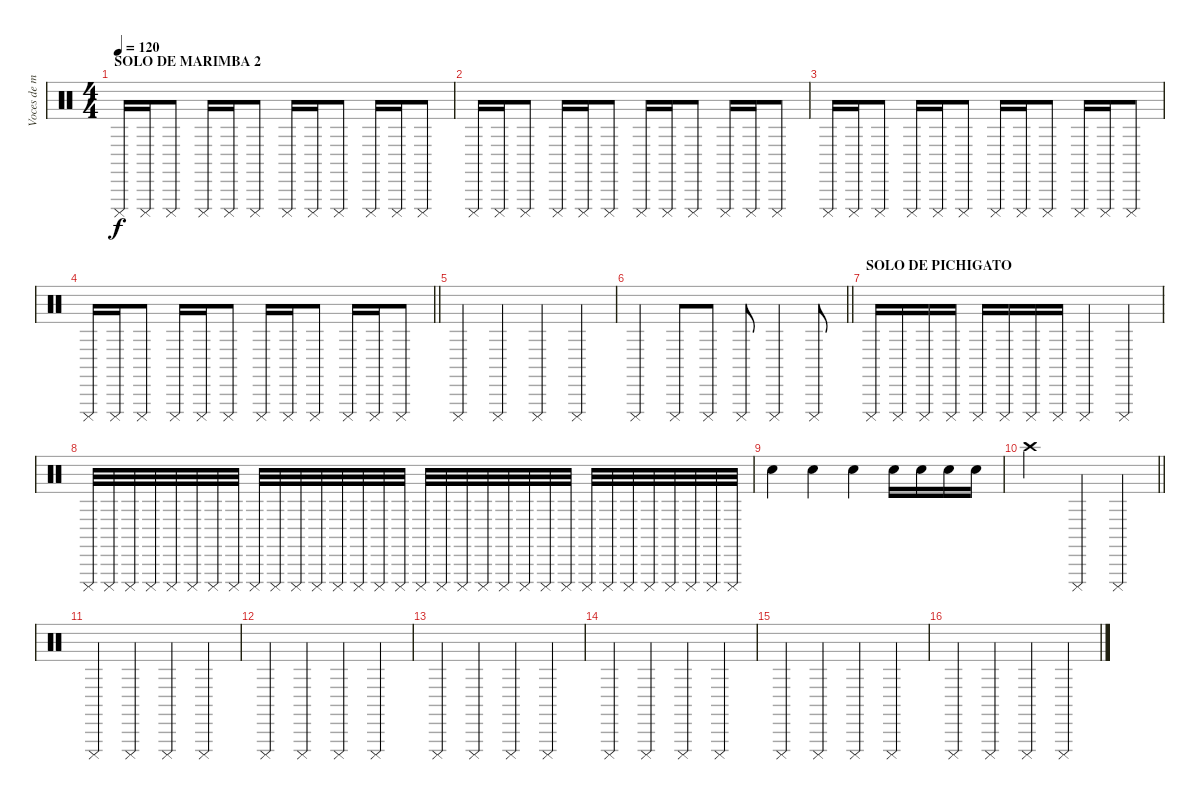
\track ("Voces de marica!!" "Voces de m") {instrument percussion}
\staff {score}
\articulation defaults
\ts (4 4)
\section ("" "SOLO DE MARIMBA 2")
\tempo 120
\clef neutral
\ks c "Cuica (mute)".16{dy f} "Cuica (mute)".16 "Cuica (mute)".8 "Cuica (mute)".16 "Cuica (mute)".16 "Cuica (mute)".8 "Cuica (mute)".16 "Cuica (mute)".16 "Cuica (mute)".8 "Cuica (mute)".16 "Cuica (mute)".16 "Cuica (mute)".8
|
"Cuica (mute)".16 "Cuica (mute)".16 "Cuica (mute)".8 "Cuica (mute)".16 "Cuica (mute)".16 "Cuica (mute)".8 "Cuica (mute)".16 "Cuica (mute)".16 "Cuica (mute)".8 "Cuica (mute)".16 "Cuica (mute)".16 "Cuica (mute)".8 |
"Cuica (mute)".16 "Cuica (mute)".16 "Cuica (mute)".8 "Cuica (mute)".16 "Cuica (mute)".16 "Cuica (mute)".8 "Cuica (mute)".16 "Cuica (mute)".16 "Cuica (mute)".8 "Cuica (mute)".16 "Cuica (mute)".16 "Cuica (mute)".8 |
\barLineRight lightlight "Cuica (mute)".16 "Cuica (mute)".16 "Cuica (mute)".8 "Cuica (mute)".16 "Cuica (mute)".16 "Cuica (mute)".8 "Cuica (mute)".16 "Cuica (mute)".16 "Cuica (mute)".8 "Cuica (mute)".16 "Cuica (mute)".16 "Cuica (mute)".8
|
"Cuica (mute)".4 "Cuica (mute)".4 "Cuica (mute)".4 "Cuica (mute)".4 |
\barLineRight lightlight "Cuica (mute)".4 "Cuica (mute)".8 "Cuica (mute)".8 "Cuica (mute)".8 "Cuica (mute)".4 "Cuica (mute)".8
|
\section ("" "SOLO DE PICHIGATO")
"Cuica (mute)".16 "Cuica (mute)".16 "Cuica (mute)".16 "Cuica (mute)".16 "Cuica (mute)".16 "Cuica (mute)".16 "Cuica (mute)".16 "Cuica (mute)".16 "Cuica (mute)".4 "Cuica (mute)".4 |
"Cuica (mute)".32 "Cuica (mute)".32 "Cuica (mute)".32 "Cuica (mute)".32 "Cuica (mute)".32 "Cuica (mute)".32 "Cuica (mute)".32 "Cuica (mute)".32 "Cuica (mute)".32 "Cuica (mute)".32 "Cuica (mute)".32 "Cuica (mute)".32 "Cuica (mute)".32 "Cuica (mute)".32 "Cuica (mute)".32 "Cuica (mute)".32 "Cuica (mute)".32 "Cuica (mute)".32 "Cuica (mute)".32 "Cuica (mute)".32 "Cuica (mute)".32 "Cuica (mute)".32 "Cuica (mute)".32 "Cuica (mute)".32 "Cuica (mute)".32 "Cuica (mute)".32 "Cuica (mute)".32 "Cuica (mute)".32 "Cuica (mute)".32 "Cuica (mute)".32 "Cuica (mute)".32 "Cuica (mute)".32 |
"Electric Snare (hit)".4 "Electric Snare (hit)".4 "Electric Snare (hit)".4 "Electric Snare (hit)".16 "Electric Snare (hit)".16 "Electric Snare (hit)".16 "Electric Snare (hit)".16 |
\barLineRight lightlight "Crash high (hit)".2 "Cuica (mute)".4 "Cuica (mute)".4
|
"Cuica (mute)".4 "Cuica (mute)".4 "Cuica (mute)".4 "Cuica (mute)".4 |
"Cuica (mute)".4 "Cuica (mute)".4 "Cuica (mute)".4 "Cuica (mute)".4 |
"Cuica (mute)".4 "Cuica (mute)".4 "Cuica (mute)".4 "Cuica (mute)".4 |
"Cuica (mute)".4 "Cuica (mute)".4 "Cuica (mute)".4 "Cuica (mute)".4 |
"Cuica (mute)".4 "Cuica (mute)".4 "Cuica (mute)".4 "Cuica (mute)".4 |
"Cuica (mute)".4 "Cuica (mute)".4 "Cuica (mute)".4 "Cuica (mute)".4
